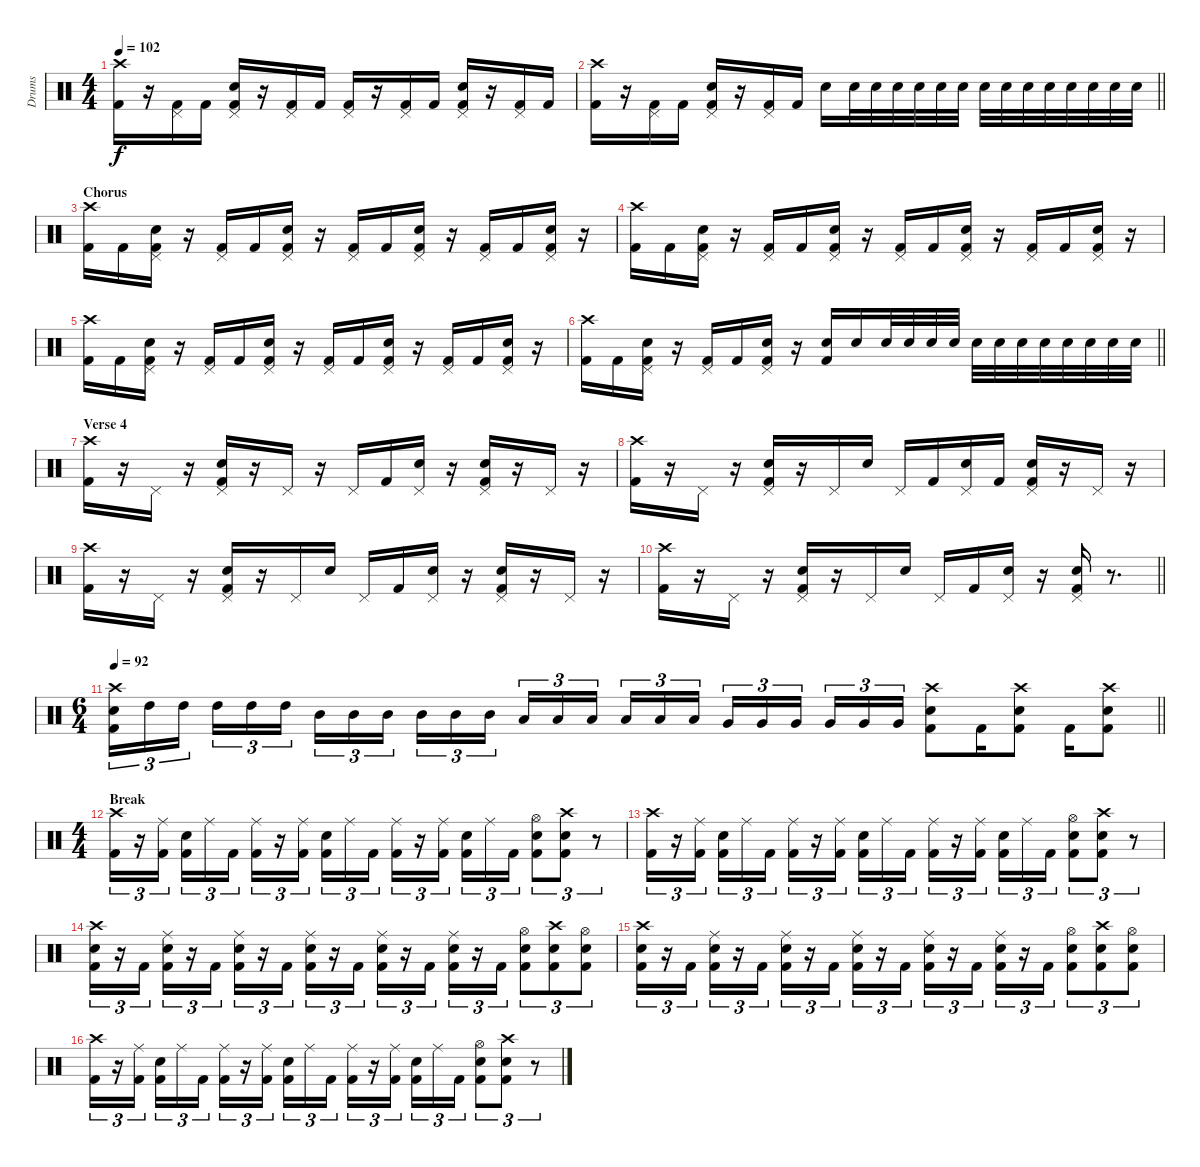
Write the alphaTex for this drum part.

\track ("Drums" "Drums") {instrument percussion}
\staff {score}
\articulation defaults
\ts (4 4)
\tempo 102
\clef neutral
\ks c
("Crash high (hit)" "Kick (hit) 2").16{dy f} r.16 ("Pedal Hi-Hat (hit)" "Kick (hit) 2").16 "Kick (hit) 2".16 ("Pedal Hi-Hat (hit)" "Snare (hit) 2" "Kick (hit) 2").16 r.16 ("Pedal Hi-Hat (hit)" "Kick (hit) 2").16 "Kick (hit) 2".16 ("Pedal Hi-Hat (hit)" "Kick (hit) 2").16 r.16 ("Pedal Hi-Hat (hit)" "Kick (hit) 2").16 "Kick (hit) 2".16 ("Pedal Hi-Hat (hit)" "Snare (hit) 2" "Kick (hit) 2").16 r.16 ("Pedal Hi-Hat (hit)" "Kick (hit) 2").16 "Kick (hit) 2".16 |
\barLineRight lightlight
("Crash high (hit)" "Kick (hit) 2").16 r.16 ("Pedal Hi-Hat (hit)" "Kick (hit) 2").16 "Kick (hit) 2".16 ("Pedal Hi-Hat (hit)" "Snare (hit) 2" "Kick (hit) 2").16 r.16 ("Pedal Hi-Hat (hit)" "Kick (hit) 2").16 "Kick (hit) 2".16 "Snare (hit) 2".16 "Snare (hit) 2".32 "Snare (hit) 2".32 "Snare (hit) 2".32 "Snare (hit) 2".32 "Snare (hit) 2".32 "Snare (hit) 2".32 "Snare (hit) 2".32 "Snare (hit) 2".32 "Snare (hit) 2".32 "Snare (hit) 2".32 "Snare (hit) 2".32 "Snare (hit) 2".32 "Snare (hit) 2".32 "Snare (hit) 2".32 |
\section ("" "Chorus")
("Crash high (hit)" "Kick (hit) 2").16 "Kick (hit) 2".16 ("Pedal Hi-Hat (hit)" "Snare (hit) 2" "Kick (hit) 2").16 r.16 ("Pedal Hi-Hat (hit)" "Kick (hit) 2").16 "Kick (hit) 2".16 ("Pedal Hi-Hat (hit)" "Snare (hit) 2" "Kick (hit) 2").16 r.16 ("Pedal Hi-Hat (hit)" "Kick (hit) 2").16 "Kick (hit) 2".16 ("Pedal Hi-Hat (hit)" "Snare (hit) 2" "Kick (hit) 2").16 r.16 ("Pedal Hi-Hat (hit)" "Kick (hit) 2").16 "Kick (hit) 2".16 ("Pedal Hi-Hat (hit)" "Snare (hit) 2" "Kick (hit) 2").16 r.16 |
("Crash high (hit)" "Kick (hit) 2").16 "Kick (hit) 2".16 ("Pedal Hi-Hat (hit)" "Snare (hit) 2" "Kick (hit) 2").16 r.16 ("Pedal Hi-Hat (hit)" "Kick (hit) 2").16 "Kick (hit) 2".16 ("Pedal Hi-Hat (hit)" "Snare (hit) 2" "Kick (hit) 2").16 r.16 ("Pedal Hi-Hat (hit)" "Kick (hit) 2").16 "Kick (hit) 2".16 ("Pedal Hi-Hat (hit)" "Snare (hit) 2" "Kick (hit) 2").16 r.16 ("Pedal Hi-Hat (hit)" "Kick (hit) 2").16 "Kick (hit) 2".16 ("Pedal Hi-Hat (hit)" "Snare (hit) 2" "Kick (hit) 2").16 r.16 |
("Crash high (hit)" "Kick (hit) 2").16 "Kick (hit) 2".16 ("Pedal Hi-Hat (hit)" "Snare (hit) 2" "Kick (hit) 2").16 r.16 ("Pedal Hi-Hat (hit)" "Kick (hit) 2").16 "Kick (hit) 2".16 ("Pedal Hi-Hat (hit)" "Snare (hit) 2" "Kick (hit) 2").16 r.16 ("Pedal Hi-Hat (hit)" "Kick (hit) 2").16 "Kick (hit) 2".16 ("Pedal Hi-Hat (hit)" "Snare (hit) 2" "Kick (hit) 2").16 r.16 ("Pedal Hi-Hat (hit)" "Kick (hit) 2").16 "Kick (hit) 2".16 ("Pedal Hi-Hat (hit)" "Snare (hit) 2" "Kick (hit) 2").16 r.16 |
\barLineRight lightlight
("Crash high (hit)" "Kick (hit) 2").16 "Kick (hit) 2".16 ("Pedal Hi-Hat (hit)" "Snare (hit) 2" "Kick (hit) 2").16 r.16 ("Pedal Hi-Hat (hit)" "Kick (hit) 2").16 "Kick (hit) 2".16 ("Pedal Hi-Hat (hit)" "Snare (hit) 2" "Kick (hit) 2").16 r.16 ("Snare (hit) 2" "Kick (hit) 2").16 "Snare (hit) 2".16 "Snare (hit) 2".32 "Snare (hit) 2".32 "Snare (hit) 2".32 "Snare (hit) 2".32 "Snare (hit) 2".32 "Snare (hit) 2".32 "Snare (hit) 2".32 "Snare (hit) 2".32 "Snare (hit) 2".32 "Snare (hit) 2".32 "Snare (hit) 2".32 "Snare (hit) 2".32 |
\section ("" "Verse 4")
("Crash high (hit)" "Kick (hit) 2").16 r.16 "Pedal Hi-Hat (hit)".16 r.16 ("Pedal Hi-Hat (hit)" "Snare (hit) 2" "Kick (hit) 2").16 r.16 "Pedal Hi-Hat (hit)".16 r.16 "Pedal Hi-Hat (hit)".16 "Kick (hit) 2".16 ("Pedal Hi-Hat (hit)" "Snare (hit) 2").16 r.16 ("Pedal Hi-Hat (hit)" "Snare (hit) 2" "Kick (hit) 2").16 r.16 "Pedal Hi-Hat (hit)".16 r.16 |
("Crash high (hit)" "Kick (hit) 2").16 r.16 "Pedal Hi-Hat (hit)".16 r.16 ("Pedal Hi-Hat (hit)" "Snare (hit) 2" "Kick (hit) 2").16 r.16 "Pedal Hi-Hat (hit)".16 "Snare (hit) 2".16 "Pedal Hi-Hat (hit)".16 "Kick (hit) 2".16 ("Pedal Hi-Hat (hit)" "Snare (hit) 2").16 "Kick (hit) 2".16 ("Pedal Hi-Hat (hit)" "Snare (hit) 2" "Kick (hit) 2").16 r.16 "Pedal Hi-Hat (hit)".16 r.16 |
("Crash high (hit)" "Kick (hit) 2").16 r.16 "Pedal Hi-Hat (hit)".16 r.16 ("Pedal Hi-Hat (hit)" "Snare (hit) 2" "Kick (hit) 2").16 r.16 "Pedal Hi-Hat (hit)".16 "Snare (hit) 2".16 "Pedal Hi-Hat (hit)".16 "Kick (hit) 2".16 ("Pedal Hi-Hat (hit)" "Snare (hit) 2").16 r.16 ("Pedal Hi-Hat (hit)" "Snare (hit) 2" "Kick (hit) 2").16 r.16 "Pedal Hi-Hat (hit)".16 r.16 |
\barLineRight lightlight
("Crash high (hit)" "Kick (hit) 2").16 r.16 "Pedal Hi-Hat (hit)".16 r.16 ("Pedal Hi-Hat (hit)" "Snare (hit) 2" "Kick (hit) 2").16 r.16 "Pedal Hi-Hat (hit)".16 "Snare (hit) 2".16 "Pedal Hi-Hat (hit)".16 "Kick (hit) 2".16 ("Pedal Hi-Hat (hit)" "Snare (hit) 2").16 r.16 ("Pedal Hi-Hat (hit)" "Snare (hit) 2" "Kick (hit) 2").16 r.8{d} |
\ts (6 4)
\tempo 92
\barLineRight lightlight
("Crash high (hit)" "Snare (hit) 2" "Kick (hit) 2").16{tu (3 2)} "High Tom (hit)".16{tu (3 2)} "High Tom (hit)".16{tu (3 2) beam splitsecondary} "High Tom (hit)".16{tu (3 2)} "High Tom (hit)".16{tu (3 2)} "High Tom (hit)".16{tu (3 2) beam splitsecondary} "Mid Tom (hit)".16{tu (3 2)} "Mid Tom (hit)".16{tu (3 2)} "Mid Tom (hit)".16{tu (3 2) beam splitsecondary} "Mid Tom (hit)".16{tu (3 2)} "Mid Tom (hit)".16{tu (3 2)} "Mid Tom (hit)".16{tu (3 2) beam splitsecondary} "Low Tom (hit)".16{tu (3 2)} "Low Tom (hit)".16{tu (3 2)} "Low Tom (hit)".16{tu (3 2) beam splitsecondary} "Low Tom (hit)".16{tu (3 2)} "Low Tom (hit)".16{tu (3 2)} "Low Tom (hit)".16{tu (3 2)} "Very Low Tom (hit)".16{tu (3 2)} "Very Low Tom (hit)".16{tu (3 2)} "Very Low Tom (hit)".16{tu (3 2) beam splitsecondary} "Very Low Tom (hit)".16{tu (3 2)} "Very Low Tom (hit)".16{tu (3 2)} "Very Low Tom (hit)".16{tu (3 2)} ("Crash high (hit)" "Snare (hit) 2" "Kick (hit) 2").8 "Kick (hit) 2".16 ("Crash high (hit)" "Snare (hit) 2" "Kick (hit) 2").8 "Kick (hit) 2".16 ("Crash high (hit)" "Snare (hit) 2" "Kick (hit) 2").8 |
\ts (4 4)
\section ("" "Break")
("Crash high (hit)" "Kick (hit) 2").16{tu (3 2)} r.16{tu (3 2)} ("Ride (middle)" "Kick (hit) 2").16{tu (3 2) beam splitsecondary} ("Snare (hit) 2" "Kick (hit) 2").16{tu (3 2)} "Ride (middle)".16{tu (3 2)} "Kick (hit) 2".16{tu (3 2)} ("Ride (middle)" "Kick (hit) 2").16{tu (3 2)} r.16{tu (3 2)} ("Ride (middle)" "Kick (hit) 2").16{tu (3 2) beam splitsecondary} ("Snare (hit) 2" "Kick (hit) 2").16{tu (3 2)} "Ride (middle)".16{tu (3 2)} "Kick (hit) 2".16{tu (3 2)} ("Ride (middle)" "Kick (hit) 2").16{tu (3 2)} r.16{tu (3 2)} ("Ride (middle)" "Kick (hit) 2").16{tu (3 2) beam splitsecondary} ("Snare (hit) 2" "Kick (hit) 2").16{tu (3 2)} "Ride (middle)".16{tu (3 2)} "Kick (hit) 2".16{tu (3 2)} ("Hi-Hat (open)" "Snare (hit) 2" "Kick (hit) 2").8{tu (3 2)} ("Crash high (hit)" "Snare (hit) 2" "Kick (hit) 2").8{tu (3 2)} r.8{tu (3 2)} |
("Crash high (hit)" "Kick (hit) 2").16{tu (3 2)} r.16{tu (3 2)} ("Ride (middle)" "Kick (hit) 2").16{tu (3 2) beam splitsecondary} ("Snare (hit) 2" "Kick (hit) 2").16{tu (3 2)} "Ride (middle)".16{tu (3 2)} "Kick (hit) 2".16{tu (3 2)} ("Ride (middle)" "Kick (hit) 2").16{tu (3 2)} r.16{tu (3 2)} ("Ride (middle)" "Kick (hit) 2").16{tu (3 2) beam splitsecondary} ("Snare (hit) 2" "Kick (hit) 2").16{tu (3 2)} "Ride (middle)".16{tu (3 2)} "Kick (hit) 2".16{tu (3 2)} ("Ride (middle)" "Kick (hit) 2").16{tu (3 2)} r.16{tu (3 2)} ("Ride (middle)" "Kick (hit) 2").16{tu (3 2) beam splitsecondary} ("Snare (hit) 2" "Kick (hit) 2").16{tu (3 2)} "Ride (middle)".16{tu (3 2)} "Kick (hit) 2".16{tu (3 2)} ("Hi-Hat (open)" "Snare (hit) 2" "Kick (hit) 2").8{tu (3 2)} ("Crash high (hit)" "Snare (hit) 2" "Kick (hit) 2").8{tu (3 2)} r.8{tu (3 2)} |
("Crash high (hit)" "Snare (hit) 2" "Kick (hit) 2").16{tu (3 2)} r.16{tu (3 2)} "Kick (hit) 2".16{tu (3 2)} ("Ride (middle)" "Snare (hit) 2" "Kick (hit) 2").16{tu (3 2)} r.16{tu (3 2)} "Kick (hit) 2".16{tu (3 2)} ("Ride (middle)" "Snare (hit) 2" "Kick (hit) 2").16{tu (3 2)} r.16{tu (3 2)} "Kick (hit) 2".16{tu (3 2)} ("Ride (middle)" "Snare (hit) 2" "Kick (hit) 2").16{tu (3 2)} r.16{tu (3 2)} "Kick (hit) 2".16{tu (3 2)} ("Ride (middle)" "Snare (hit) 2" "Kick (hit) 2").16{tu (3 2)} r.16{tu (3 2)} "Kick (hit) 2".16{tu (3 2)} ("Ride (middle)" "Snare (hit) 2" "Kick (hit) 2").16{tu (3 2)} r.16{tu (3 2)} "Kick (hit) 2".16{tu (3 2)} ("Hi-Hat (open)" "Snare (hit) 2" "Kick (hit) 2").8{tu (3 2)} ("Crash high (hit)" "Snare (hit) 2" "Kick (hit) 2").8{tu (3 2)} ("Hi-Hat (open)" "Snare (hit) 2" "Kick (hit) 2").8{tu (3 2)} |
("Crash high (hit)" "Snare (hit) 2" "Kick (hit) 2").16{tu (3 2)} r.16{tu (3 2)} "Kick (hit) 2".16{tu (3 2)} ("Ride (middle)" "Snare (hit) 2" "Kick (hit) 2").16{tu (3 2)} r.16{tu (3 2)} "Kick (hit) 2".16{tu (3 2)} ("Ride (middle)" "Snare (hit) 2" "Kick (hit) 2").16{tu (3 2)} r.16{tu (3 2)} "Kick (hit) 2".16{tu (3 2)} ("Ride (middle)" "Snare (hit) 2" "Kick (hit) 2").16{tu (3 2)} r.16{tu (3 2)} "Kick (hit) 2".16{tu (3 2)} ("Ride (middle)" "Snare (hit) 2" "Kick (hit) 2").16{tu (3 2)} r.16{tu (3 2)} "Kick (hit) 2".16{tu (3 2)} ("Ride (middle)" "Snare (hit) 2" "Kick (hit) 2").16{tu (3 2)} r.16{tu (3 2)} "Kick (hit) 2".16{tu (3 2)} ("Hi-Hat (open)" "Snare (hit) 2" "Kick (hit) 2").8{tu (3 2)} ("Crash high (hit)" "Snare (hit) 2" "Kick (hit) 2").8{tu (3 2)} ("Hi-Hat (open)" "Snare (hit) 2" "Kick (hit) 2").8{tu (3 2)} |
("Crash high (hit)" "Kick (hit) 2").16{tu (3 2)} r.16{tu (3 2)} ("Ride (middle)" "Kick (hit) 2").16{tu (3 2) beam splitsecondary} ("Snare (hit) 2" "Kick (hit) 2").16{tu (3 2)} "Ride (middle)".16{tu (3 2)} "Kick (hit) 2".16{tu (3 2)} ("Ride (middle)" "Kick (hit) 2").16{tu (3 2)} r.16{tu (3 2)} ("Ride (middle)" "Kick (hit) 2").16{tu (3 2) beam splitsecondary} ("Snare (hit) 2" "Kick (hit) 2").16{tu (3 2)} "Ride (middle)".16{tu (3 2)} "Kick (hit) 2".16{tu (3 2)} ("Ride (middle)" "Kick (hit) 2").16{tu (3 2)} r.16{tu (3 2)} ("Ride (middle)" "Kick (hit) 2").16{tu (3 2) beam splitsecondary} ("Snare (hit) 2" "Kick (hit) 2").16{tu (3 2)} "Ride (middle)".16{tu (3 2)} "Kick (hit) 2".16{tu (3 2)} ("Hi-Hat (open)" "Snare (hit) 2" "Kick (hit) 2").8{tu (3 2)} ("Crash high (hit)" "Snare (hit) 2" "Kick (hit) 2").8{tu (3 2)} r.8{tu (3 2)}
